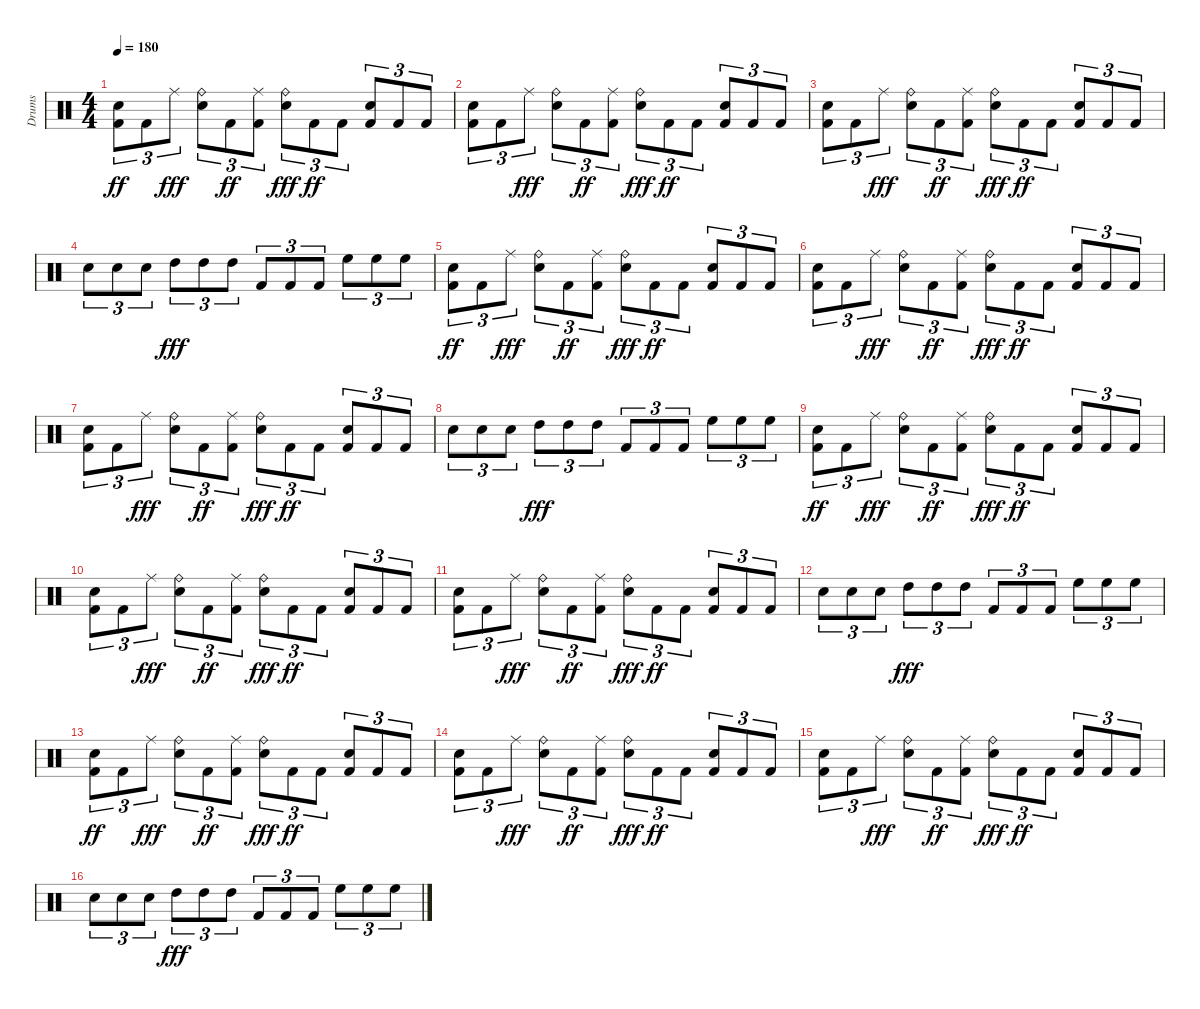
\track ("Drums" "Drums") {instrument percussion}
\staff {score}
\articulation defaults
\ts (4 4)
\tempo 180
\clef neutral
\ks c
("Electric Snare (hit)" "Kick (hit) 2").8{tu (3 2) dy ff} "Kick (hit) 2".8{tu (3 2)} "Ride (middle)".8{tu (3 2) dy fff} ("Electric Snare (hit)" "Ride (bell)").8{tu (3 2)} "Kick (hit) 2".8{tu (3 2) dy ff} ("Ride (middle)" "Kick (hit) 2").8{tu (3 2)} ("Electric Snare (hit)" "Ride (bell)").8{tu (3 2) dy fff} "Kick (hit) 2".8{tu (3 2) dy ff} "Kick (hit) 2".8{tu (3 2)} ("Electric Snare (hit)" "Kick (hit) 2").8{tu (3 2)} "Kick (hit) 2".8{tu (3 2)} "Kick (hit) 2".8{tu (3 2)} |
("Electric Snare (hit)" "Kick (hit) 2").8{tu (3 2)} "Kick (hit) 2".8{tu (3 2)} "Ride (middle)".8{tu (3 2) dy fff} ("Electric Snare (hit)" "Ride (bell)").8{tu (3 2)} "Kick (hit) 2".8{tu (3 2) dy ff} ("Ride (middle)" "Kick (hit) 2").8{tu (3 2)} ("Electric Snare (hit)" "Ride (bell)").8{tu (3 2) dy fff} "Kick (hit) 2".8{tu (3 2) dy ff} "Kick (hit) 2".8{tu (3 2)} ("Electric Snare (hit)" "Kick (hit) 2").8{tu (3 2)} "Kick (hit) 2".8{tu (3 2)} "Kick (hit) 2".8{tu (3 2)} |
("Electric Snare (hit)" "Kick (hit) 2").8{tu (3 2)} "Kick (hit) 2".8{tu (3 2)} "Ride (middle)".8{tu (3 2) dy fff} ("Electric Snare (hit)" "Ride (bell)").8{tu (3 2)} "Kick (hit) 2".8{tu (3 2) dy ff} ("Ride (middle)" "Kick (hit) 2").8{tu (3 2)} ("Electric Snare (hit)" "Ride (bell)").8{tu (3 2) dy fff} "Kick (hit) 2".8{tu (3 2) dy ff} "Kick (hit) 2".8{tu (3 2)} ("Electric Snare (hit)" "Kick (hit) 2").8{tu (3 2)} "Kick (hit) 2".8{tu (3 2)} "Kick (hit) 2".8{tu (3 2)} |
"Electric Snare (hit)".8{tu (3 2)} "Electric Snare (hit)".8{tu (3 2)} "Electric Snare (hit)".8{tu (3 2)} "High Tom (hit)".8{tu (3 2) dy fff} "High Tom (hit)".8{tu (3 2)} "High Tom (hit)".8{tu (3 2)} "Kick (hit) 2".8{tu (3 2)} "Kick (hit) 2".8{tu (3 2)} "Kick (hit) 2".8{tu (3 2)} "High Floor Tom (hit)".8{tu (3 2)} "High Floor Tom (hit)".8{tu (3 2)} "High Floor Tom (hit)".8{tu (3 2)} |
("Electric Snare (hit)" "Kick (hit) 2").8{tu (3 2) dy ff} "Kick (hit) 2".8{tu (3 2)} "Ride (middle)".8{tu (3 2) dy fff} ("Electric Snare (hit)" "Ride (bell)").8{tu (3 2)} "Kick (hit) 2".8{tu (3 2) dy ff} ("Ride (middle)" "Kick (hit) 2").8{tu (3 2)} ("Electric Snare (hit)" "Ride (bell)").8{tu (3 2) dy fff} "Kick (hit) 2".8{tu (3 2) dy ff} "Kick (hit) 2".8{tu (3 2)} ("Electric Snare (hit)" "Kick (hit) 2").8{tu (3 2)} "Kick (hit) 2".8{tu (3 2)} "Kick (hit) 2".8{tu (3 2)} |
("Electric Snare (hit)" "Kick (hit) 2").8{tu (3 2)} "Kick (hit) 2".8{tu (3 2)} "Ride (middle)".8{tu (3 2) dy fff} ("Electric Snare (hit)" "Ride (bell)").8{tu (3 2)} "Kick (hit) 2".8{tu (3 2) dy ff} ("Ride (middle)" "Kick (hit) 2").8{tu (3 2)} ("Electric Snare (hit)" "Ride (bell)").8{tu (3 2) dy fff} "Kick (hit) 2".8{tu (3 2) dy ff} "Kick (hit) 2".8{tu (3 2)} ("Electric Snare (hit)" "Kick (hit) 2").8{tu (3 2)} "Kick (hit) 2".8{tu (3 2)} "Kick (hit) 2".8{tu (3 2)} |
("Electric Snare (hit)" "Kick (hit) 2").8{tu (3 2)} "Kick (hit) 2".8{tu (3 2)} "Ride (middle)".8{tu (3 2) dy fff} ("Electric Snare (hit)" "Ride (bell)").8{tu (3 2)} "Kick (hit) 2".8{tu (3 2) dy ff} ("Ride (middle)" "Kick (hit) 2").8{tu (3 2)} ("Electric Snare (hit)" "Ride (bell)").8{tu (3 2) dy fff} "Kick (hit) 2".8{tu (3 2) dy ff} "Kick (hit) 2".8{tu (3 2)} ("Electric Snare (hit)" "Kick (hit) 2").8{tu (3 2)} "Kick (hit) 2".8{tu (3 2)} "Kick (hit) 2".8{tu (3 2)} |
"Electric Snare (hit)".8{tu (3 2)} "Electric Snare (hit)".8{tu (3 2)} "Electric Snare (hit)".8{tu (3 2)} "High Tom (hit)".8{tu (3 2) dy fff} "High Tom (hit)".8{tu (3 2)} "High Tom (hit)".8{tu (3 2)} "Kick (hit) 2".8{tu (3 2)} "Kick (hit) 2".8{tu (3 2)} "Kick (hit) 2".8{tu (3 2)} "High Floor Tom (hit)".8{tu (3 2)} "High Floor Tom (hit)".8{tu (3 2)} "High Floor Tom (hit)".8{tu (3 2)} |
("Electric Snare (hit)" "Kick (hit) 2").8{tu (3 2) dy ff} "Kick (hit) 2".8{tu (3 2)} "Ride (middle)".8{tu (3 2) dy fff} ("Electric Snare (hit)" "Ride (bell)").8{tu (3 2)} "Kick (hit) 2".8{tu (3 2) dy ff} ("Ride (middle)" "Kick (hit) 2").8{tu (3 2)} ("Electric Snare (hit)" "Ride (bell)").8{tu (3 2) dy fff} "Kick (hit) 2".8{tu (3 2) dy ff} "Kick (hit) 2".8{tu (3 2)} ("Electric Snare (hit)" "Kick (hit) 2").8{tu (3 2)} "Kick (hit) 2".8{tu (3 2)} "Kick (hit) 2".8{tu (3 2)} |
("Electric Snare (hit)" "Kick (hit) 2").8{tu (3 2)} "Kick (hit) 2".8{tu (3 2)} "Ride (middle)".8{tu (3 2) dy fff} ("Electric Snare (hit)" "Ride (bell)").8{tu (3 2)} "Kick (hit) 2".8{tu (3 2) dy ff} ("Ride (middle)" "Kick (hit) 2").8{tu (3 2)} ("Electric Snare (hit)" "Ride (bell)").8{tu (3 2) dy fff} "Kick (hit) 2".8{tu (3 2) dy ff} "Kick (hit) 2".8{tu (3 2)} ("Electric Snare (hit)" "Kick (hit) 2").8{tu (3 2)} "Kick (hit) 2".8{tu (3 2)} "Kick (hit) 2".8{tu (3 2)} |
("Electric Snare (hit)" "Kick (hit) 2").8{tu (3 2)} "Kick (hit) 2".8{tu (3 2)} "Ride (middle)".8{tu (3 2) dy fff} ("Electric Snare (hit)" "Ride (bell)").8{tu (3 2)} "Kick (hit) 2".8{tu (3 2) dy ff} ("Ride (middle)" "Kick (hit) 2").8{tu (3 2)} ("Electric Snare (hit)" "Ride (bell)").8{tu (3 2) dy fff} "Kick (hit) 2".8{tu (3 2) dy ff} "Kick (hit) 2".8{tu (3 2)} ("Electric Snare (hit)" "Kick (hit) 2").8{tu (3 2)} "Kick (hit) 2".8{tu (3 2)} "Kick (hit) 2".8{tu (3 2)} |
"Electric Snare (hit)".8{tu (3 2)} "Electric Snare (hit)".8{tu (3 2)} "Electric Snare (hit)".8{tu (3 2)} "High Tom (hit)".8{tu (3 2) dy fff} "High Tom (hit)".8{tu (3 2)} "High Tom (hit)".8{tu (3 2)} "Kick (hit) 2".8{tu (3 2)} "Kick (hit) 2".8{tu (3 2)} "Kick (hit) 2".8{tu (3 2)} "High Floor Tom (hit)".8{tu (3 2)} "High Floor Tom (hit)".8{tu (3 2)} "High Floor Tom (hit)".8{tu (3 2)} |
("Electric Snare (hit)" "Kick (hit) 2").8{tu (3 2) dy ff} "Kick (hit) 2".8{tu (3 2)} "Ride (middle)".8{tu (3 2) dy fff} ("Electric Snare (hit)" "Ride (bell)").8{tu (3 2)} "Kick (hit) 2".8{tu (3 2) dy ff} ("Ride (middle)" "Kick (hit) 2").8{tu (3 2)} ("Electric Snare (hit)" "Ride (bell)").8{tu (3 2) dy fff} "Kick (hit) 2".8{tu (3 2) dy ff} "Kick (hit) 2".8{tu (3 2)} ("Electric Snare (hit)" "Kick (hit) 2").8{tu (3 2)} "Kick (hit) 2".8{tu (3 2)} "Kick (hit) 2".8{tu (3 2)} |
("Electric Snare (hit)" "Kick (hit) 2").8{tu (3 2)} "Kick (hit) 2".8{tu (3 2)} "Ride (middle)".8{tu (3 2) dy fff} ("Electric Snare (hit)" "Ride (bell)").8{tu (3 2)} "Kick (hit) 2".8{tu (3 2) dy ff} ("Ride (middle)" "Kick (hit) 2").8{tu (3 2)} ("Electric Snare (hit)" "Ride (bell)").8{tu (3 2) dy fff} "Kick (hit) 2".8{tu (3 2) dy ff} "Kick (hit) 2".8{tu (3 2)} ("Electric Snare (hit)" "Kick (hit) 2").8{tu (3 2)} "Kick (hit) 2".8{tu (3 2)} "Kick (hit) 2".8{tu (3 2)} |
("Electric Snare (hit)" "Kick (hit) 2").8{tu (3 2)} "Kick (hit) 2".8{tu (3 2)} "Ride (middle)".8{tu (3 2) dy fff} ("Electric Snare (hit)" "Ride (bell)").8{tu (3 2)} "Kick (hit) 2".8{tu (3 2) dy ff} ("Ride (middle)" "Kick (hit) 2").8{tu (3 2)} ("Electric Snare (hit)" "Ride (bell)").8{tu (3 2) dy fff} "Kick (hit) 2".8{tu (3 2) dy ff} "Kick (hit) 2".8{tu (3 2)} ("Electric Snare (hit)" "Kick (hit) 2").8{tu (3 2)} "Kick (hit) 2".8{tu (3 2)} "Kick (hit) 2".8{tu (3 2)} |
"Electric Snare (hit)".8{tu (3 2)} "Electric Snare (hit)".8{tu (3 2)} "Electric Snare (hit)".8{tu (3 2)} "High Tom (hit)".8{tu (3 2) dy fff} "High Tom (hit)".8{tu (3 2)} "High Tom (hit)".8{tu (3 2)} "Kick (hit) 2".8{tu (3 2)} "Kick (hit) 2".8{tu (3 2)} "Kick (hit) 2".8{tu (3 2)} "High Floor Tom (hit)".8{tu (3 2)} "High Floor Tom (hit)".8{tu (3 2)} "High Floor Tom (hit)".8{tu (3 2)}
